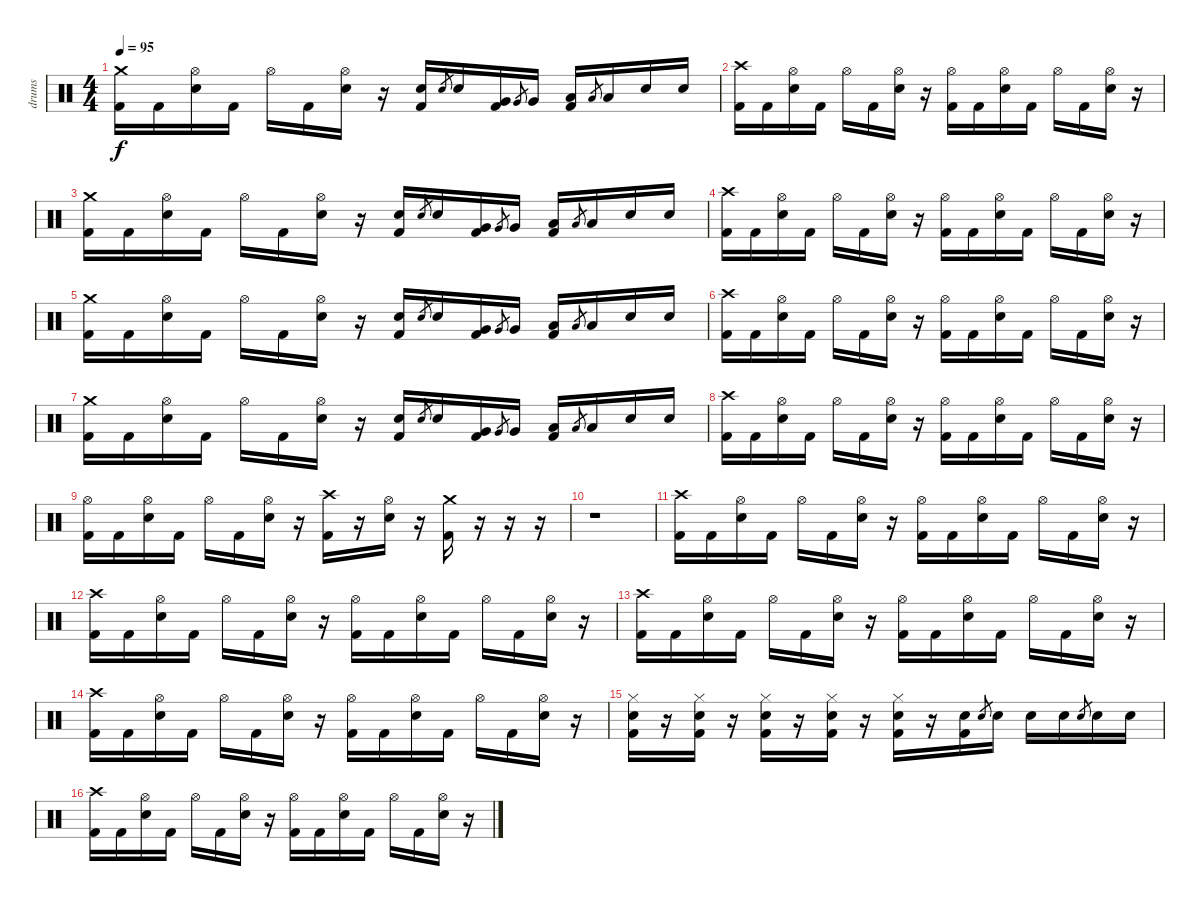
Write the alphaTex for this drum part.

\track ("drums" "drums") {instrument percussion}
\staff {score}
\articulation defaults
\ts (4 4)
\tempo 95
\clef neutral
\ks c
("Kick (hit) 2" "Crash medium (hit)").16{dy f} "Kick (hit) 2".16 ("Electric Snare (hit)" "Hi-Hat (open)").16 "Kick (hit) 2".16 "Hi-Hat (open)".16 "Kick (hit) 2".16 ("Electric Snare (hit)" "Hi-Hat (open)").16 r.16 ("Kick (hit) 2" "Electric Snare (hit)").16 "Electric Snare (hit)".8{gr} "Electric Snare (hit)".16 ("Kick (hit) 2" "Very Low Tom (hit)").16 "Very Low Tom (hit)".8{gr} "Very Low Tom (hit)".16 ("Kick (hit) 2" "Low Tom (hit)").16 "Low Tom (hit)".8{gr} "Low Tom (hit)".16 "Electric Snare (hit)".16 "Electric Snare (hit)".16 |
("Kick (hit) 2" "Crash high (hit)").16 "Kick (hit) 2".16 ("Electric Snare (hit)" "Hi-Hat (open)").16 "Kick (hit) 2".16 "Hi-Hat (open)".16 "Kick (hit) 2".16 ("Electric Snare (hit)" "Hi-Hat (open)").16 r.16 ("Kick (hit) 2" "Hi-Hat (open)").16 "Kick (hit) 2".16 ("Electric Snare (hit)" "Hi-Hat (open)").16 "Kick (hit) 2".16 "Hi-Hat (open)".16 "Kick (hit) 2".16 ("Electric Snare (hit)" "Hi-Hat (open)").16 r.16 |
("Kick (hit) 2" "Crash medium (hit)").16 "Kick (hit) 2".16 ("Electric Snare (hit)" "Hi-Hat (open)").16 "Kick (hit) 2".16 "Hi-Hat (open)".16 "Kick (hit) 2".16 ("Electric Snare (hit)" "Hi-Hat (open)").16 r.16 ("Kick (hit) 2" "Electric Snare (hit)").16 "Electric Snare (hit)".8{gr} "Electric Snare (hit)".16 ("Kick (hit) 2" "Very Low Tom (hit)").16 "Very Low Tom (hit)".8{gr} "Very Low Tom (hit)".16 ("Kick (hit) 2" "Low Tom (hit)").16 "Low Tom (hit)".8{gr} "Low Tom (hit)".16 "Electric Snare (hit)".16 "Electric Snare (hit)".16 |
("Kick (hit) 2" "Crash high (hit)").16 "Kick (hit) 2".16 ("Electric Snare (hit)" "Hi-Hat (open)").16 "Kick (hit) 2".16 "Hi-Hat (open)".16 "Kick (hit) 2".16 ("Electric Snare (hit)" "Hi-Hat (open)").16 r.16 ("Kick (hit) 2" "Hi-Hat (open)").16 "Kick (hit) 2".16 ("Electric Snare (hit)" "Hi-Hat (open)").16 "Kick (hit) 2".16 "Hi-Hat (open)".16 "Kick (hit) 2".16 ("Electric Snare (hit)" "Hi-Hat (open)").16 r.16 |
("Kick (hit) 2" "Crash medium (hit)").16 "Kick (hit) 2".16 ("Electric Snare (hit)" "Hi-Hat (open)").16 "Kick (hit) 2".16 "Hi-Hat (open)".16 "Kick (hit) 2".16 ("Electric Snare (hit)" "Hi-Hat (open)").16 r.16 ("Kick (hit) 2" "Electric Snare (hit)").16 "Electric Snare (hit)".8{gr} "Electric Snare (hit)".16 ("Kick (hit) 2" "Very Low Tom (hit)").16 "Very Low Tom (hit)".8{gr} "Very Low Tom (hit)".16 ("Kick (hit) 2" "Low Tom (hit)").16 "Low Tom (hit)".8{gr} "Low Tom (hit)".16 "Electric Snare (hit)".16 "Electric Snare (hit)".16 |
("Kick (hit) 2" "Crash high (hit)").16 "Kick (hit) 2".16 ("Electric Snare (hit)" "Hi-Hat (open)").16 "Kick (hit) 2".16 "Hi-Hat (open)".16 "Kick (hit) 2".16 ("Electric Snare (hit)" "Hi-Hat (open)").16 r.16 ("Kick (hit) 2" "Hi-Hat (open)").16 "Kick (hit) 2".16 ("Electric Snare (hit)" "Hi-Hat (open)").16 "Kick (hit) 2".16 "Hi-Hat (open)".16 "Kick (hit) 2".16 ("Electric Snare (hit)" "Hi-Hat (open)").16 r.16 |
("Kick (hit) 2" "Crash medium (hit)").16 "Kick (hit) 2".16 ("Electric Snare (hit)" "Hi-Hat (open)").16 "Kick (hit) 2".16 "Hi-Hat (open)".16 "Kick (hit) 2".16 ("Electric Snare (hit)" "Hi-Hat (open)").16 r.16 ("Kick (hit) 2" "Electric Snare (hit)").16 "Electric Snare (hit)".8{gr} "Electric Snare (hit)".16 ("Kick (hit) 2" "Very Low Tom (hit)").16 "Very Low Tom (hit)".8{gr} "Very Low Tom (hit)".16 ("Kick (hit) 2" "Low Tom (hit)").16 "Low Tom (hit)".8{gr} "Low Tom (hit)".16 "Electric Snare (hit)".16 "Electric Snare (hit)".16 |
("Kick (hit) 2" "Crash high (hit)").16 "Kick (hit) 2".16 ("Electric Snare (hit)" "Hi-Hat (open)").16 "Kick (hit) 2".16 "Hi-Hat (open)".16 "Kick (hit) 2".16 ("Electric Snare (hit)" "Hi-Hat (open)").16 r.16 ("Kick (hit) 2" "Hi-Hat (open)").16 "Kick (hit) 2".16 ("Electric Snare (hit)" "Hi-Hat (open)").16 "Kick (hit) 2".16 "Hi-Hat (open)".16 "Kick (hit) 2".16 ("Electric Snare (hit)" "Hi-Hat (open)").16 r.16 |
("Kick (hit) 2" "Hi-Hat (open)").16 "Kick (hit) 2".16 ("Electric Snare (hit)" "Hi-Hat (open)").16 "Kick (hit) 2".16 "Hi-Hat (open)".16 "Kick (hit) 2".16 ("Electric Snare (hit)" "Hi-Hat (open)").16 r.16 ("Kick (hit) 2" "Crash high (hit)").16 r.16 ("Electric Snare (hit)" "Hi-Hat (open)").16 r.16 ("Kick (hit) 2" "Crash medium (hit)").16 r.16 r.16 r.16 |
r.1 |
("Kick (hit) 2" "Crash high (hit)").16 "Kick (hit) 2".16 ("Electric Snare (hit)" "Hi-Hat (open)").16 "Kick (hit) 2".16 "Hi-Hat (open)".16 "Kick (hit) 2".16 ("Electric Snare (hit)" "Hi-Hat (open)").16 r.16 ("Kick (hit) 2" "Hi-Hat (open)").16 "Kick (hit) 2".16 ("Electric Snare (hit)" "Hi-Hat (open)").16 "Kick (hit) 2".16 "Hi-Hat (open)".16 "Kick (hit) 2".16 ("Electric Snare (hit)" "Hi-Hat (open)").16 r.16 |
("Kick (hit) 2" "Crash high (hit)").16 "Kick (hit) 2".16 ("Electric Snare (hit)" "Hi-Hat (open)").16 "Kick (hit) 2".16 "Hi-Hat (open)".16 "Kick (hit) 2".16 ("Electric Snare (hit)" "Hi-Hat (open)").16 r.16 ("Kick (hit) 2" "Hi-Hat (open)").16 "Kick (hit) 2".16 ("Electric Snare (hit)" "Hi-Hat (open)").16 "Kick (hit) 2".16 "Hi-Hat (open)".16 "Kick (hit) 2".16 ("Electric Snare (hit)" "Hi-Hat (open)").16 r.16 |
("Kick (hit) 2" "Crash high (hit)").16 "Kick (hit) 2".16 ("Electric Snare (hit)" "Hi-Hat (open)").16 "Kick (hit) 2".16 "Hi-Hat (open)".16 "Kick (hit) 2".16 ("Electric Snare (hit)" "Hi-Hat (open)").16 r.16 ("Kick (hit) 2" "Hi-Hat (open)").16 "Kick (hit) 2".16 ("Electric Snare (hit)" "Hi-Hat (open)").16 "Kick (hit) 2".16 "Hi-Hat (open)".16 "Kick (hit) 2".16 ("Electric Snare (hit)" "Hi-Hat (open)").16 r.16 |
("Kick (hit) 2" "Crash high (hit)").16 "Kick (hit) 2".16 ("Electric Snare (hit)" "Hi-Hat (open)").16 "Kick (hit) 2".16 "Hi-Hat (open)".16 "Kick (hit) 2".16 ("Electric Snare (hit)" "Hi-Hat (open)").16 r.16 ("Kick (hit) 2" "Hi-Hat (open)").16 "Kick (hit) 2".16 ("Electric Snare (hit)" "Hi-Hat (open)").16 "Kick (hit) 2".16 "Hi-Hat (open)".16 "Kick (hit) 2".16 ("Electric Snare (hit)" "Hi-Hat (open)").16 r.16 |
("Kick (hit) 2" "Electric Snare (hit)" "Hi-Hat (closed)").16 r.16 ("Kick (hit) 2" "Electric Snare (hit)" "Hi-Hat (closed)").16 r.16 ("Kick (hit) 2" "Electric Snare (hit)" "Hi-Hat (closed)").16 r.16 ("Kick (hit) 2" "Electric Snare (hit)" "Hi-Hat (closed)").16 r.16 ("Kick (hit) 2" "Electric Snare (hit)" "Hi-Hat (closed)").16 r.16 ("Kick (hit) 2" "Electric Snare (hit)").16 "Electric Snare (hit)".8{gr} "Electric Snare (hit)".16 "Electric Snare (hit)".16 "Electric Snare (hit)".16 "Electric Snare (hit)".8{gr} "Electric Snare (hit)".16 "Electric Snare (hit)".16 |
("Kick (hit) 2" "Crash high (hit)").16 "Kick (hit) 2".16 ("Electric Snare (hit)" "Hi-Hat (open)").16 "Kick (hit) 2".16 "Hi-Hat (open)".16 "Kick (hit) 2".16 ("Electric Snare (hit)" "Hi-Hat (open)").16 r.16 ("Kick (hit) 2" "Hi-Hat (open)").16 "Kick (hit) 2".16 ("Electric Snare (hit)" "Hi-Hat (open)").16 "Kick (hit) 2".16 "Hi-Hat (open)".16 "Kick (hit) 2".16 ("Electric Snare (hit)" "Hi-Hat (open)").16 r.16
